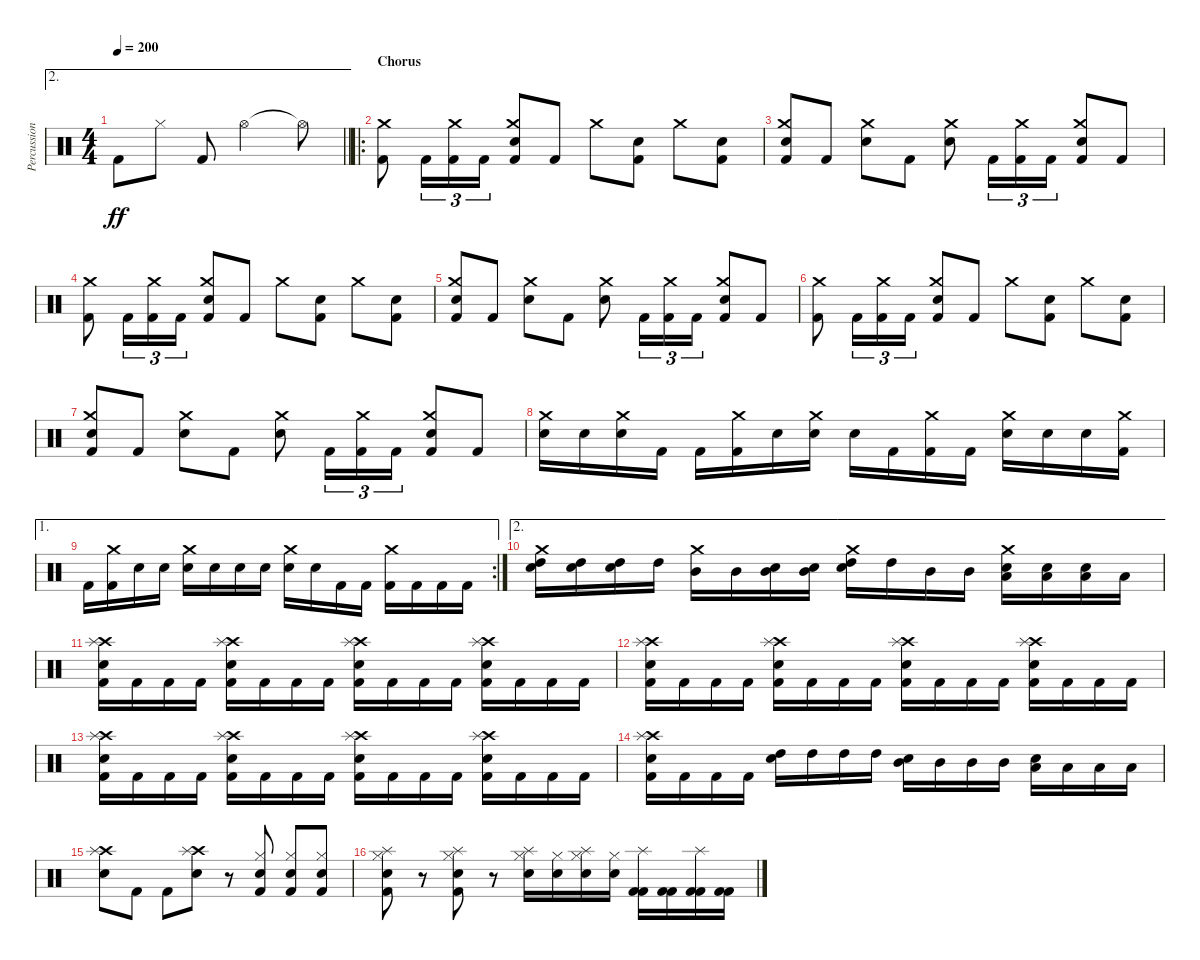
\track ("Percussion" "Percussion") {instrument percussion}
\staff {score}
\articulation defaults
\ae 2
\ts (4 4)
\tempo 200
\clef neutral
\barLineRight lightlight
\ks c "Kick (hit) 2".8{dy ff} "Hi-Hat (closed)".8 "Kick (hit) 2".8 "Hi-Hat (open)".2 "Hi-Hat (open)"{t}.8
|
\ro
\section ("" "Chorus")
("Crash medium (hit)" "Kick (hit) 2").8 "Kick (hit) 2".16{tu (3 2)} ("Crash medium (hit)" "Kick (hit) 2").16{tu (3 2)} "Kick (hit) 2".16{tu (3 2)} ("Crash medium (hit)" "Electric Snare (hit)" "Kick (hit) 2").8 "Kick (hit) 2".8 "Crash medium (hit)".8 ("Electric Snare (hit)" "Kick (hit) 2").8 "Crash medium (hit)".8 ("Electric Snare (hit)" "Kick (hit) 2").8 |
("Crash medium (hit)" "Electric Snare (hit)" "Kick (hit) 2").8 "Kick (hit) 2".8 ("Crash medium (hit)" "Electric Snare (hit)").8 "Kick (hit) 2".8 ("Crash medium (hit)" "Electric Snare (hit)").8 "Kick (hit) 2".16{tu (3 2)} ("Crash medium (hit)" "Kick (hit) 2").16{tu (3 2)} "Kick (hit) 2".16{tu (3 2)} ("Crash medium (hit)" "Electric Snare (hit)" "Kick (hit) 2").8 "Kick (hit) 2".8 |
("Crash medium (hit)" "Kick (hit) 2").8 "Kick (hit) 2".16{tu (3 2)} ("Crash medium (hit)" "Kick (hit) 2").16{tu (3 2)} "Kick (hit) 2".16{tu (3 2)} ("Crash medium (hit)" "Electric Snare (hit)" "Kick (hit) 2").8 "Kick (hit) 2".8 "Crash medium (hit)".8 ("Electric Snare (hit)" "Kick (hit) 2").8 "Crash medium (hit)".8 ("Electric Snare (hit)" "Kick (hit) 2").8 |
("Crash medium (hit)" "Electric Snare (hit)" "Kick (hit) 2").8 "Kick (hit) 2".8 ("Crash medium (hit)" "Electric Snare (hit)").8 "Kick (hit) 2".8 ("Crash medium (hit)" "Electric Snare (hit)").8 "Kick (hit) 2".16{tu (3 2)} ("Crash medium (hit)" "Kick (hit) 2").16{tu (3 2)} "Kick (hit) 2".16{tu (3 2)} ("Crash medium (hit)" "Electric Snare (hit)" "Kick (hit) 2").8 "Kick (hit) 2".8 |
("Crash medium (hit)" "Kick (hit) 2").8 "Kick (hit) 2".16{tu (3 2)} ("Crash medium (hit)" "Kick (hit) 2").16{tu (3 2)} "Kick (hit) 2".16{tu (3 2)} ("Crash medium (hit)" "Electric Snare (hit)" "Kick (hit) 2").8 "Kick (hit) 2".8 "Crash medium (hit)".8 ("Electric Snare (hit)" "Kick (hit) 2").8 "Crash medium (hit)".8 ("Electric Snare (hit)" "Kick (hit) 2").8 |
("Crash medium (hit)" "Electric Snare (hit)" "Kick (hit) 2").8 "Kick (hit) 2".8 ("Crash medium (hit)" "Electric Snare (hit)").8 "Kick (hit) 2".8 ("Crash medium (hit)" "Electric Snare (hit)").8 "Kick (hit) 2".16{tu (3 2)} ("Crash medium (hit)" "Kick (hit) 2").16{tu (3 2)} "Kick (hit) 2".16{tu (3 2)} ("Crash medium (hit)" "Electric Snare (hit)" "Kick (hit) 2").8 "Kick (hit) 2".8 |
("Crash medium (hit)" "Electric Snare (hit)").16 "Electric Snare (hit)".16 ("Crash medium (hit)" "Electric Snare (hit)").16 "Kick (hit) 2".16 "Kick (hit) 2".16 ("Crash medium (hit)" "Kick (hit) 2").16 "Electric Snare (hit)".16 ("Crash medium (hit)" "Electric Snare (hit)").16 "Electric Snare (hit)".16 "Kick (hit) 2".16 ("Crash medium (hit)" "Kick (hit) 2").16 "Kick (hit) 2".16 ("Crash medium (hit)" "Electric Snare (hit)").16 "Electric Snare (hit)".16 "Electric Snare (hit)".16 ("Crash medium (hit)" "Kick (hit) 2").16 |
\ae 1
\rc 2 "Kick (hit) 2".16
("Crash medium (hit)" "Kick (hit) 2").16 "Electric Snare (hit)".16 "Electric Snare (hit)".16 ("Crash medium (hit)" "Electric Snare (hit)").16 "Electric Snare (hit)".16 "Electric Snare (hit)".16 "Electric Snare (hit)".16 ("Crash medium (hit)" "Electric Snare (hit)").16 "Electric Snare (hit)".16 "Kick (hit) 2".16 "Kick (hit) 2".16 ("Crash medium (hit)" "Kick (hit) 2").16 "Kick (hit) 2".16 "Kick (hit) 2".16 "Kick (hit) 2".16 |
\ae 2
("Crash medium (hit)" "High Tom (hit)" "Electric Snare (hit)").16 ("High Tom (hit)" "Electric Snare (hit)").16 ("High Tom (hit)" "Electric Snare (hit)").16 "High Tom (hit)".16 ("Crash medium (hit)" "Mid Tom (hit)").16 "Mid Tom (hit)".16 ("Mid Tom (hit)" "Electric Snare (hit)").16 ("Mid Tom (hit)" "Electric Snare (hit)").16 ("Crash medium (hit)" "High Tom (hit)" "Electric Snare (hit)").16 "High Tom (hit)".16 "Mid Tom (hit)".16 "Mid Tom (hit)".16 ("Crash medium (hit)" "Low Tom (hit)" "Electric Snare (hit)").16 ("Low Tom (hit)" "Electric Snare (hit)").16 ("Low Tom (hit)" "Electric Snare (hit)").16 "Low Tom (hit)".16 |
("Crash high (hit)" "Splash (hit)" "Electric Snare (hit)" "Kick (hit) 2").16 "Kick (hit) 2".16 "Kick (hit) 2".16 "Kick (hit) 2".16 ("Crash high (hit)" "Splash (hit)" "Electric Snare (hit)" "Kick (hit) 2").16 "Kick (hit) 2".16 "Kick (hit) 2".16 "Kick (hit) 2".16 ("Crash high (hit)" "Splash (hit)" "Electric Snare (hit)" "Kick (hit) 2").16 "Kick (hit) 2".16 "Kick (hit) 2".16 "Kick (hit) 2".16 ("Crash high (hit)" "Splash (hit)" "Electric Snare (hit)" "Kick (hit) 2").16 "Kick (hit) 2".16 "Kick (hit) 2".16 "Kick (hit) 2".16 |
("Crash high (hit)" "Splash (hit)" "Electric Snare (hit)" "Kick (hit) 2").16 "Kick (hit) 2".16 "Kick (hit) 2".16 "Kick (hit) 2".16 ("Crash high (hit)" "Splash (hit)" "Electric Snare (hit)" "Kick (hit) 2").16 "Kick (hit) 2".16 "Kick (hit) 2".16 "Kick (hit) 2".16 ("Crash high (hit)" "Splash (hit)" "Electric Snare (hit)" "Kick (hit) 2").16 "Kick (hit) 2".16 "Kick (hit) 2".16 "Kick (hit) 2".16 ("Crash high (hit)" "Splash (hit)" "Electric Snare (hit)" "Kick (hit) 2").16 "Kick (hit) 2".16 "Kick (hit) 2".16 "Kick (hit) 2".16 |
("Crash high (hit)" "Splash (hit)" "Electric Snare (hit)" "Kick (hit) 2").16 "Kick (hit) 2".16 "Kick (hit) 2".16 "Kick (hit) 2".16 ("Crash high (hit)" "Splash (hit)" "Electric Snare (hit)" "Kick (hit) 2").16 "Kick (hit) 2".16 "Kick (hit) 2".16 "Kick (hit) 2".16 ("Crash high (hit)" "Splash (hit)" "Electric Snare (hit)" "Kick (hit) 2").16 "Kick (hit) 2".16 "Kick (hit) 2".16 "Kick (hit) 2".16 ("Crash high (hit)" "Splash (hit)" "Electric Snare (hit)" "Kick (hit) 2").16 "Kick (hit) 2".16 "Kick (hit) 2".16 "Kick (hit) 2".16 |
("Crash high (hit)" "Splash (hit)" "Electric Snare (hit)" "Kick (hit) 2").16 "Kick (hit) 2".16 "Kick (hit) 2".16 "Kick (hit) 2".16 ("Electric Snare (hit)" "High Tom (hit)").16 "High Tom (hit)".16 "High Tom (hit)".16 "High Tom (hit)".16 ("Electric Snare (hit)" "Mid Tom (hit)").16 "Mid Tom (hit)".16 "Mid Tom (hit)".16 "Mid Tom (hit)".16 ("Electric Snare (hit)" "Low Tom (hit)").16 "Low Tom (hit)".16 "Low Tom (hit)".16 "Low Tom (hit)".16 |
("Crash high (hit)" "Splash (hit)" "Electric Snare (hit)").8 "Kick (hit) 2".8 "Kick (hit) 2".8 ("Crash high (hit)" "Splash (hit)" "Electric Snare (hit)").8 r.8 ("Hi-Hat (closed)" "Electric Snare (hit)" "Kick (hit) 2").8 ("Hi-Hat (closed)" "Electric Snare (hit)" "Kick (hit) 2").8 ("Hi-Hat (closed)" "Electric Snare (hit)" "Kick (hit) 2").8 |
("Splash (hit)" "Hi-Hat (closed)" "Electric Snare (hit)" "Kick (hit) 2").8 r.8 ("Splash (hit)" "Hi-Hat (closed)" "Electric Snare (hit)" "Kick (hit) 2").8 r.8 ("Splash (hit)" "Hi-Hat (closed)" "Electric Snare (hit)").16 ("Hi-Hat (closed)" "Electric Snare (hit)").16 ("Splash (hit)" "Hi-Hat (closed)" "Electric Snare (hit)").16 ("Hi-Hat (closed)" "Electric Snare (hit)").16 ("Splash (hit)" "Kick (hit) 2" "Kick (hit) 2").16 ("Kick (hit) 2" "Kick (hit) 2").16 ("Splash (hit)" "Kick (hit) 2" "Kick (hit) 2").16 ("Kick (hit) 2" "Kick (hit) 2").16
